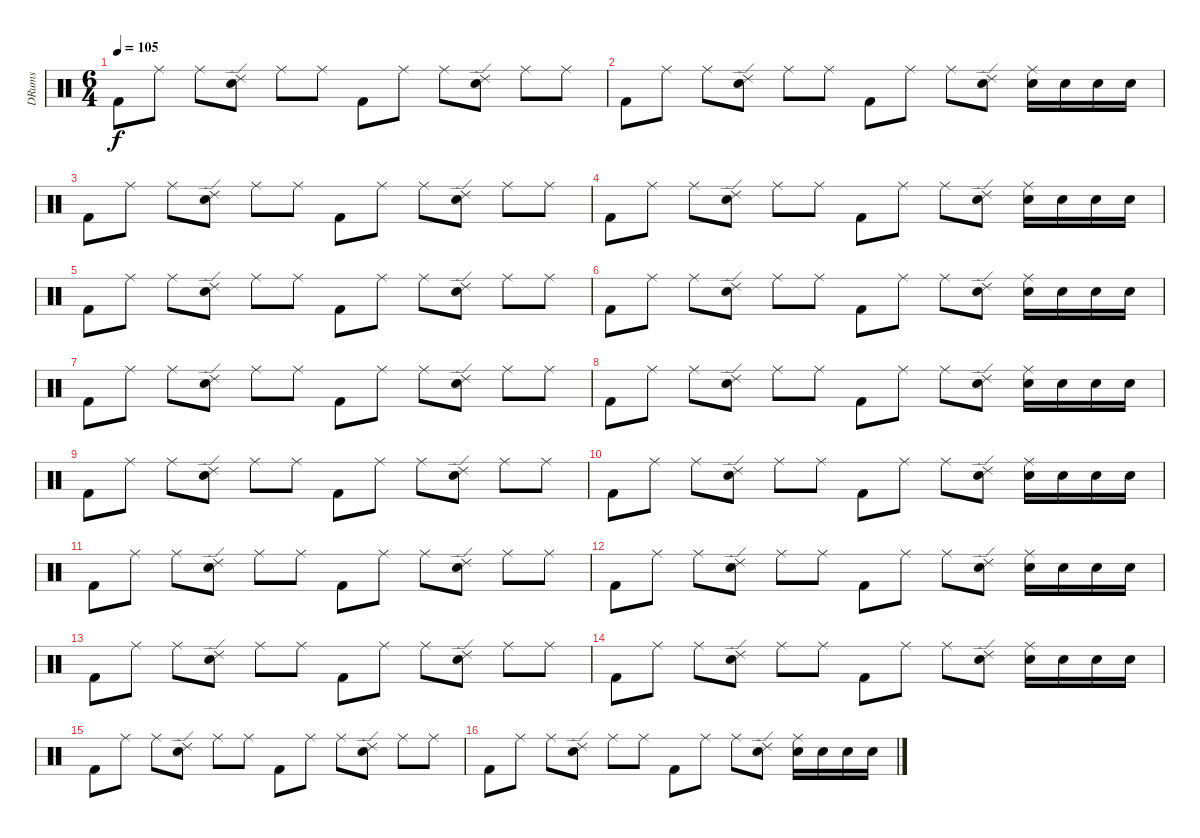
\track ("DRums" "DRums") {instrument percussion}
\staff {score}
\articulation defaults
\ts (6 4)
\tempo 105
\clef neutral
\ks c "Kick (hit) 2".8{dy f} "Ride (middle)".8 "Ride (middle)".8
("Ride (edge) 2" "Snare (hit) 2").8 "Ride (middle)".8 "Ride (middle)".8 "Kick (hit) 2".8 "Ride (middle)".8 "Ride (middle)".8 ("Ride (edge) 2" "Snare (hit) 2").8 "Ride (middle)".8 "Ride (middle)".8 |
"Kick (hit) 2".8 "Ride (middle)".8 "Ride (middle)".8 ("Ride (edge) 2" "Snare (hit) 2").8 "Ride (middle)".8 "Ride (middle)".8 "Kick (hit) 2".8 "Ride (middle)".8 "Ride (middle)".8 ("Ride (edge) 2" "Snare (hit) 2").8 ("Ride (middle)" "Snare (hit) 2").16 "Snare (hit) 2".16 "Snare (hit) 2".16 "Snare (hit) 2".16 |
"Kick (hit) 2".8 "Ride (middle)".8 "Ride (middle)".8 ("Ride (edge) 2" "Snare (hit) 2").8 "Ride (middle)".8 "Ride (middle)".8 "Kick (hit) 2".8 "Ride (middle)".8 "Ride (middle)".8 ("Ride (edge) 2" "Snare (hit) 2").8 "Ride (middle)".8 "Ride (middle)".8 |
"Kick (hit) 2".8 "Ride (middle)".8 "Ride (middle)".8 ("Ride (edge) 2" "Snare (hit) 2").8 "Ride (middle)".8 "Ride (middle)".8 "Kick (hit) 2".8 "Ride (middle)".8 "Ride (middle)".8 ("Ride (edge) 2" "Snare (hit) 2").8 ("Ride (middle)" "Snare (hit) 2").16 "Snare (hit) 2".16 "Snare (hit) 2".16 "Snare (hit) 2".16 |
"Kick (hit) 2".8 "Ride (middle)".8 "Ride (middle)".8 ("Ride (edge) 2" "Snare (hit) 2").8 "Ride (middle)".8 "Ride (middle)".8 "Kick (hit) 2".8 "Ride (middle)".8 "Ride (middle)".8 ("Ride (edge) 2" "Snare (hit) 2").8 "Ride (middle)".8 "Ride (middle)".8 |
"Kick (hit) 2".8 "Ride (middle)".8 "Ride (middle)".8 ("Ride (edge) 2" "Snare (hit) 2").8 "Ride (middle)".8 "Ride (middle)".8 "Kick (hit) 2".8 "Ride (middle)".8 "Ride (middle)".8 ("Ride (edge) 2" "Snare (hit) 2").8 ("Ride (middle)" "Snare (hit) 2").16 "Snare (hit) 2".16 "Snare (hit) 2".16 "Snare (hit) 2".16 |
"Kick (hit) 2".8 "Ride (middle)".8 "Ride (middle)".8 ("Ride (edge) 2" "Snare (hit) 2").8 "Ride (middle)".8 "Ride (middle)".8 "Kick (hit) 2".8 "Ride (middle)".8 "Ride (middle)".8 ("Ride (edge) 2" "Snare (hit) 2").8 "Ride (middle)".8 "Ride (middle)".8 |
"Kick (hit) 2".8 "Ride (middle)".8 "Ride (middle)".8 ("Ride (edge) 2" "Snare (hit) 2").8 "Ride (middle)".8 "Ride (middle)".8 "Kick (hit) 2".8 "Ride (middle)".8 "Ride (middle)".8 ("Ride (edge) 2" "Snare (hit) 2").8 ("Ride (middle)" "Snare (hit) 2").16 "Snare (hit) 2".16 "Snare (hit) 2".16 "Snare (hit) 2".16 |
"Kick (hit) 2".8 "Ride (middle)".8 "Ride (middle)".8 ("Ride (edge) 2" "Snare (hit) 2").8 "Ride (middle)".8 "Ride (middle)".8 "Kick (hit) 2".8 "Ride (middle)".8 "Ride (middle)".8 ("Ride (edge) 2" "Snare (hit) 2").8 "Ride (middle)".8 "Ride (middle)".8 |
"Kick (hit) 2".8 "Ride (middle)".8 "Ride (middle)".8 ("Ride (edge) 2" "Snare (hit) 2").8 "Ride (middle)".8 "Ride (middle)".8 "Kick (hit) 2".8 "Ride (middle)".8 "Ride (middle)".8 ("Ride (edge) 2" "Snare (hit) 2").8 ("Ride (middle)" "Snare (hit) 2").16 "Snare (hit) 2".16 "Snare (hit) 2".16 "Snare (hit) 2".16 |
"Kick (hit) 2".8 "Ride (middle)".8 "Ride (middle)".8 ("Ride (edge) 2" "Snare (hit) 2").8 "Ride (middle)".8 "Ride (middle)".8 "Kick (hit) 2".8 "Ride (middle)".8 "Ride (middle)".8 ("Ride (edge) 2" "Snare (hit) 2").8 "Ride (middle)".8 "Ride (middle)".8 |
"Kick (hit) 2".8 "Ride (middle)".8 "Ride (middle)".8 ("Ride (edge) 2" "Snare (hit) 2").8 "Ride (middle)".8 "Ride (middle)".8 "Kick (hit) 2".8 "Ride (middle)".8 "Ride (middle)".8 ("Ride (edge) 2" "Snare (hit) 2").8 ("Ride (middle)" "Snare (hit) 2").16 "Snare (hit) 2".16 "Snare (hit) 2".16 "Snare (hit) 2".16 |
"Kick (hit) 2".8 "Ride (middle)".8 "Ride (middle)".8 ("Ride (edge) 2" "Snare (hit) 2").8 "Ride (middle)".8 "Ride (middle)".8 "Kick (hit) 2".8 "Ride (middle)".8 "Ride (middle)".8 ("Ride (edge) 2" "Snare (hit) 2").8 "Ride (middle)".8 "Ride (middle)".8 |
"Kick (hit) 2".8 "Ride (middle)".8 "Ride (middle)".8 ("Ride (edge) 2" "Snare (hit) 2").8 "Ride (middle)".8 "Ride (middle)".8 "Kick (hit) 2".8 "Ride (middle)".8 "Ride (middle)".8 ("Ride (edge) 2" "Snare (hit) 2").8 ("Ride (middle)" "Snare (hit) 2").16 "Snare (hit) 2".16 "Snare (hit) 2".16 "Snare (hit) 2".16 |
"Kick (hit) 2".8 "Ride (middle)".8 "Ride (middle)".8 ("Ride (edge) 2" "Snare (hit) 2").8 "Ride (middle)".8 "Ride (middle)".8 "Kick (hit) 2".8 "Ride (middle)".8 "Ride (middle)".8 ("Ride (edge) 2" "Snare (hit) 2").8 "Ride (middle)".8 "Ride (middle)".8 |
"Kick (hit) 2".8 "Ride (middle)".8 "Ride (middle)".8 ("Ride (edge) 2" "Snare (hit) 2").8 "Ride (middle)".8 "Ride (middle)".8 "Kick (hit) 2".8 "Ride (middle)".8 "Ride (middle)".8 ("Ride (edge) 2" "Snare (hit) 2").8 ("Ride (middle)" "Snare (hit) 2").16 "Snare (hit) 2".16 "Snare (hit) 2".16 "Snare (hit) 2".16
